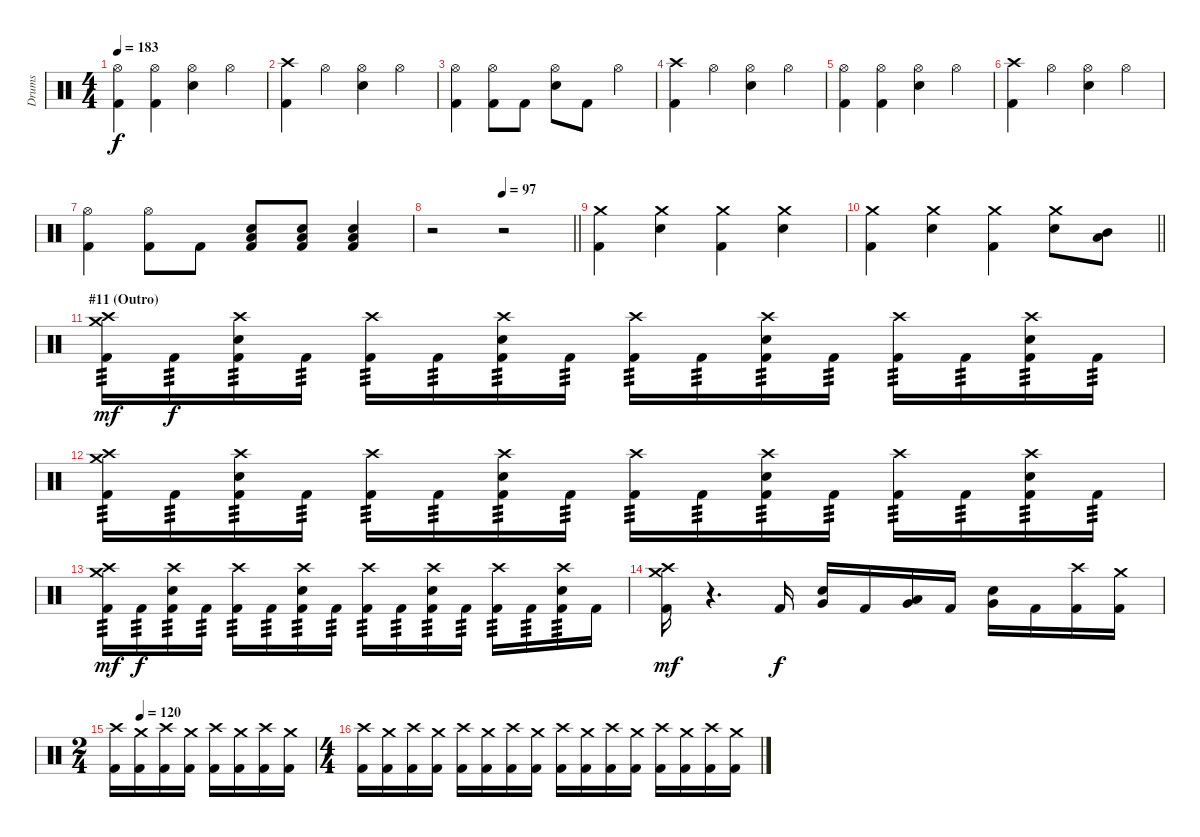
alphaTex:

\track ("Drums" "Drums") {instrument percussion}
\staff {score}
\articulation defaults
\ts (4 4)
\tempo 183
\clef neutral
\ks c
("Hi-Hat (open)" "Kick (hit) 2").4{dy f} ("Hi-Hat (open)" "Kick (hit) 2").4 ("Hi-Hat (open)" "Electric Snare (hit)").4 "Hi-Hat (open)".4 |
("Crash high (hit)" "Kick (hit) 2").4 "Hi-Hat (open)".4 ("Hi-Hat (open)" "Electric Snare (hit)").4 "Hi-Hat (open)".4 |
("Hi-Hat (open)" "Kick (hit) 2").4 ("Hi-Hat (open)" "Kick (hit) 2").8 "Kick (hit) 2".8 ("Hi-Hat (open)" "Electric Snare (hit)").8 "Kick (hit) 2".8 "Hi-Hat (open)".4 |
("Crash high (hit)" "Kick (hit) 2").4 "Hi-Hat (open)".4 ("Hi-Hat (open)" "Electric Snare (hit)").4 "Hi-Hat (open)".4 |
("Hi-Hat (open)" "Kick (hit) 2").4 ("Hi-Hat (open)" "Kick (hit) 2").4 ("Hi-Hat (open)" "Electric Snare (hit)").4 "Hi-Hat (open)".4 |
("Crash high (hit)" "Kick (hit) 2").4 "Hi-Hat (open)".4 ("Hi-Hat (open)" "Electric Snare (hit)").4 "Hi-Hat (open)".4 |
("Hi-Hat (open)" "Kick (hit) 2").4 ("Hi-Hat (open)" "Kick (hit) 2").8 "Kick (hit) 2".8 ("Electric Snare (hit)" "Low Floor Tom (hit)" "Kick (hit) 2").8 ("Electric Snare (hit)" "Low Floor Tom (hit)" "Kick (hit) 2").8 ("Electric Snare (hit)" "Low Floor Tom (hit)" "Kick (hit) 2").4 |
\tempo (97 0.5)
\barLineRight lightlight
r.2 r.2 |
("Crash medium (hit)" "Kick (hit) 2").4 ("Crash medium (hit)" "Electric Snare (hit)").4 ("Crash medium (hit)" "Kick (hit) 2").4 ("Crash medium (hit)" "Electric Snare (hit)").4 |
\barLineRight lightlight
("Crash medium (hit)" "Kick (hit) 2").4 ("Crash medium (hit)" "Electric Snare (hit)").4 ("Crash medium (hit)" "Kick (hit) 2").4 ("Crash medium (hit)" "Electric Snare (hit)").8 ("Mid Tom (hit)" "Low Tom (hit)").8 |
\section ("" "#11 (Outro)")
("Crash high (hit)" "Crash medium (hit)" "Kick (hit) 2").16{tp 3 dy mf} "Kick (hit) 2".16{tp 3 dy f} ("Crash high (hit)" "Electric Snare (hit)" "Kick (hit) 2").16{tp 3} "Kick (hit) 2".16{tp 3} ("Crash high (hit)" "Kick (hit) 2").16{tp 3} "Kick (hit) 2".16{tp 3} ("Crash high (hit)" "Electric Snare (hit)" "Kick (hit) 2").16{tp 3} "Kick (hit) 2".16{tp 3} ("Crash high (hit)" "Kick (hit) 2").16{tp 3} "Kick (hit) 2".16{tp 3} ("Crash high (hit)" "Electric Snare (hit)" "Kick (hit) 2").16{tp 3} "Kick (hit) 2".16{tp 3} ("Crash high (hit)" "Kick (hit) 2").16{tp 3} "Kick (hit) 2".16{tp 3} ("Crash high (hit)" "Electric Snare (hit)" "Kick (hit) 2").16{tp 3} "Kick (hit) 2".16{tp 3} |
("Crash high (hit)" "Crash medium (hit)" "Kick (hit) 2").16{tp 3} "Kick (hit) 2".16{tp 3} ("Crash high (hit)" "Electric Snare (hit)" "Kick (hit) 2").16{tp 3} "Kick (hit) 2".16{tp 3} ("Crash high (hit)" "Kick (hit) 2").16{tp 3} "Kick (hit) 2".16{tp 3} ("Crash high (hit)" "Electric Snare (hit)" "Kick (hit) 2").16{tp 3} "Kick (hit) 2".16{tp 3} ("Crash high (hit)" "Kick (hit) 2").16{tp 3} "Kick (hit) 2".16{tp 3} ("Crash high (hit)" "Electric Snare (hit)" "Kick (hit) 2").16{tp 3} "Kick (hit) 2".16{tp 3} ("Crash high (hit)" "Kick (hit) 2").16{tp 3} "Kick (hit) 2".16{tp 3} ("Crash high (hit)" "Electric Snare (hit)" "Kick (hit) 2").16{tp 3} "Kick (hit) 2".16{tp 3} |
("Crash high (hit)" "Crash medium (hit)" "Kick (hit) 2").16{tp 3 dy mf} "Kick (hit) 2".16{tp 3 dy f} ("Crash high (hit)" "Electric Snare (hit)" "Kick (hit) 2").16{tp 3} "Kick (hit) 2".16{tp 3} ("Crash high (hit)" "Kick (hit) 2").16{tp 3} "Kick (hit) 2".16{tp 3} ("Crash high (hit)" "Electric Snare (hit)" "Kick (hit) 2").16{tp 3} "Kick (hit) 2".16{tp 3} ("Crash high (hit)" "Kick (hit) 2").16{tp 3} "Kick (hit) 2".16{tp 3} ("Crash high (hit)" "Electric Snare (hit)" "Kick (hit) 2").16{tp 3} "Kick (hit) 2".16{tp 3} ("Crash high (hit)" "Kick (hit) 2").16{tp 3} "Kick (hit) 2".16{tp 3} ("Crash high (hit)" "Electric Snare (hit)" "Kick (hit) 2").16{tp 3} "Kick (hit) 2".16 |
("Crash high (hit)" "Crash medium (hit)" "Kick (hit) 2").16{dy mf} r.4{d} "Kick (hit) 2".16{dy f} ("Snare (hit) 2" "Very Low Tom (hit)").16 "Kick (hit) 2".16 ("Low Tom (hit)" "Very Low Tom (hit)").16 "Kick (hit) 2".16 ("Snare (hit) 2" "Very Low Tom (hit)").16 "Kick (hit) 2".16 ("Crash high (hit)" "Kick (hit) 2").16 ("Crash medium (hit)" "Kick (hit) 2").16 |
\ts (2 4)
\tempo (120 0.125)
("Crash high (hit)" "Kick (hit) 2").16 ("Crash medium (hit)" "Kick (hit) 2").16 ("Crash high (hit)" "Kick (hit) 2").16 ("Crash medium (hit)" "Kick (hit) 2").16 ("Crash high (hit)" "Kick (hit) 2").16 ("Crash medium (hit)" "Kick (hit) 2").16 ("Crash high (hit)" "Kick (hit) 2").16 ("Crash medium (hit)" "Kick (hit) 2").16 |
\ts (4 4)
("Crash high (hit)" "Kick (hit) 2").16 ("Crash medium (hit)" "Kick (hit) 2").16 ("Crash high (hit)" "Kick (hit) 2").16 ("Crash medium (hit)" "Kick (hit) 2").16 ("Crash high (hit)" "Kick (hit) 2").16 ("Crash medium (hit)" "Kick (hit) 2").16 ("Crash high (hit)" "Kick (hit) 2").16 ("Crash medium (hit)" "Kick (hit) 2").16 ("Crash high (hit)" "Kick (hit) 2").16 ("Crash medium (hit)" "Kick (hit) 2").16 ("Crash high (hit)" "Kick (hit) 2").16 ("Crash medium (hit)" "Kick (hit) 2").16 ("Crash high (hit)" "Kick (hit) 2").16 ("Crash medium (hit)" "Kick (hit) 2").16 ("Crash high (hit)" "Kick (hit) 2").16 ("Crash medium (hit)" "Kick (hit) 2").16
